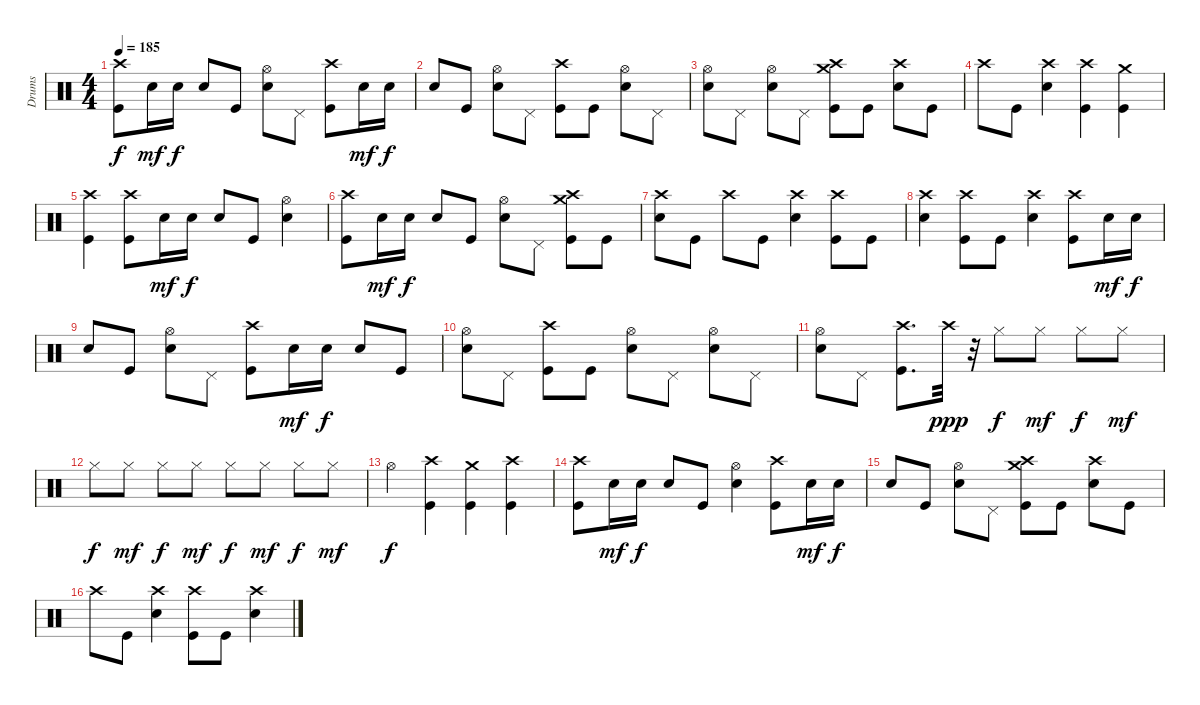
\track ("Drums" "Drums") {instrument percussion}
\staff {score}
\articulation defaults
\ts (4 4)
\tempo 185
\clef neutral
\ks c
("Kick (hit)" "Crash high (hit)").8{dy f} "Electric Snare (hit)".16{dy mf} "Electric Snare (hit)".16{dy f} "Electric Snare (hit)".8 "Kick (hit)".8 ("Electric Snare (hit)" "Hi-Hat (open)").8 "Pedal Hi-Hat (hit)".8 ("Kick (hit)" "Crash high (hit)").8 "Electric Snare (hit)".16{dy mf} "Electric Snare (hit)".16{dy f} |
"Electric Snare (hit)".8 "Kick (hit)".8 ("Electric Snare (hit)" "Hi-Hat (open)").8 "Pedal Hi-Hat (hit)".8 ("Kick (hit)" "Crash high (hit)").8 "Kick (hit)".8 ("Electric Snare (hit)" "Hi-Hat (open)").8 "Pedal Hi-Hat (hit)".8 |
("Electric Snare (hit)" "Hi-Hat (open)").8 "Pedal Hi-Hat (hit)".8 ("Electric Snare (hit)" "Hi-Hat (open)").8 "Pedal Hi-Hat (hit)".8 ("Kick (hit)" "Crash high (hit)" "Crash medium (hit)").8 "Kick (hit)".8 ("Electric Snare (hit)" "Crash high (hit)").8 "Kick (hit)".8 |
"Crash high (hit)".8 "Kick (hit)".8 ("Electric Snare (hit)" "Crash high (hit)").4 ("Kick (hit)" "Crash high (hit)").4 ("Kick (hit)" "Crash medium (hit)").4 |
("Kick (hit)" "Crash high (hit)").4 ("Kick (hit)" "Crash high (hit)").8 "Electric Snare (hit)".16{dy mf} "Electric Snare (hit)".16{dy f} "Electric Snare (hit)".8 "Kick (hit)".8 ("Electric Snare (hit)" "Hi-Hat (open)").4 |
("Kick (hit)" "Crash high (hit)").8 "Electric Snare (hit)".16{dy mf} "Electric Snare (hit)".16{dy f} "Electric Snare (hit)".8 "Kick (hit)".8 ("Electric Snare (hit)" "Hi-Hat (open)").8 "Pedal Hi-Hat (hit)".8 ("Kick (hit)" "Crash high (hit)" "Crash medium (hit)").8 "Kick (hit)".8 |
("Electric Snare (hit)" "Crash high (hit)").8 "Kick (hit)".8 "Crash high (hit)".8 "Kick (hit)".8 ("Electric Snare (hit)" "Crash high (hit)").4 ("Kick (hit)" "Crash high (hit)").8 "Kick (hit)".8 |
("Electric Snare (hit)" "Crash high (hit)").4 ("Kick (hit)" "Crash high (hit)").8 "Kick (hit)".8 ("Electric Snare (hit)" "Crash high (hit)").4 ("Kick (hit)" "Crash high (hit)").8 "Electric Snare (hit)".16{dy mf} "Electric Snare (hit)".16{dy f} |
"Electric Snare (hit)".8 "Kick (hit)".8 ("Electric Snare (hit)" "Hi-Hat (open)").8 "Pedal Hi-Hat (hit)".8 ("Kick (hit)" "Crash high (hit)").8 "Electric Snare (hit)".16{dy mf} "Electric Snare (hit)".16{dy f} "Electric Snare (hit)".8 "Kick (hit)".8 |
("Electric Snare (hit)" "Hi-Hat (open)").8 "Pedal Hi-Hat (hit)".8 ("Kick (hit)" "Crash high (hit)").8 "Kick (hit)".8 ("Electric Snare (hit)" "Hi-Hat (open)").8 "Pedal Hi-Hat (hit)".8 ("Electric Snare (hit)" "Hi-Hat (open)").8 "Pedal Hi-Hat (hit)".8 |
("Electric Snare (hit)" "Hi-Hat (open)").8 "Pedal Hi-Hat (hit)".8 ("Kick (hit)" "Crash high (hit)").8{d} "Crash high (hit)".32{dy ppp} r.32 "Hi-Hat (closed)".8{dy f} "Hi-Hat (closed)".8{dy mf} "Hi-Hat (closed)".8{dy f} "Hi-Hat (closed)".8{dy mf} |
"Hi-Hat (closed)".8{dy f} "Hi-Hat (closed)".8{dy mf} "Hi-Hat (closed)".8{dy f} "Hi-Hat (closed)".8{dy mf} "Hi-Hat (closed)".8{dy f} "Hi-Hat (closed)".8{dy mf} "Hi-Hat (closed)".8{dy f} "Hi-Hat (closed)".8{dy mf} |
"Hi-Hat (open)".4{dy f} ("Kick (hit)" "Crash high (hit)").4 ("Kick (hit)" "Crash medium (hit)").4 ("Kick (hit)" "Crash high (hit)").4 |
("Kick (hit)" "Crash high (hit)").8 "Electric Snare (hit)".16{dy mf} "Electric Snare (hit)".16{dy f} "Electric Snare (hit)".8 "Kick (hit)".8 ("Electric Snare (hit)" "Hi-Hat (open)").4 ("Kick (hit)" "Crash high (hit)").8 "Electric Snare (hit)".16{dy mf} "Electric Snare (hit)".16{dy f} |
"Electric Snare (hit)".8 "Kick (hit)".8 ("Electric Snare (hit)" "Hi-Hat (open)").8 "Pedal Hi-Hat (hit)".8 ("Kick (hit)" "Crash high (hit)" "Crash medium (hit)").8 "Kick (hit)".8 ("Electric Snare (hit)" "Crash high (hit)").8 "Kick (hit)".8 |
"Crash high (hit)".8 "Kick (hit)".8 ("Electric Snare (hit)" "Crash high (hit)").4 ("Kick (hit)" "Crash high (hit)").8 "Kick (hit)".8 ("Electric Snare (hit)" "Crash high (hit)").4
